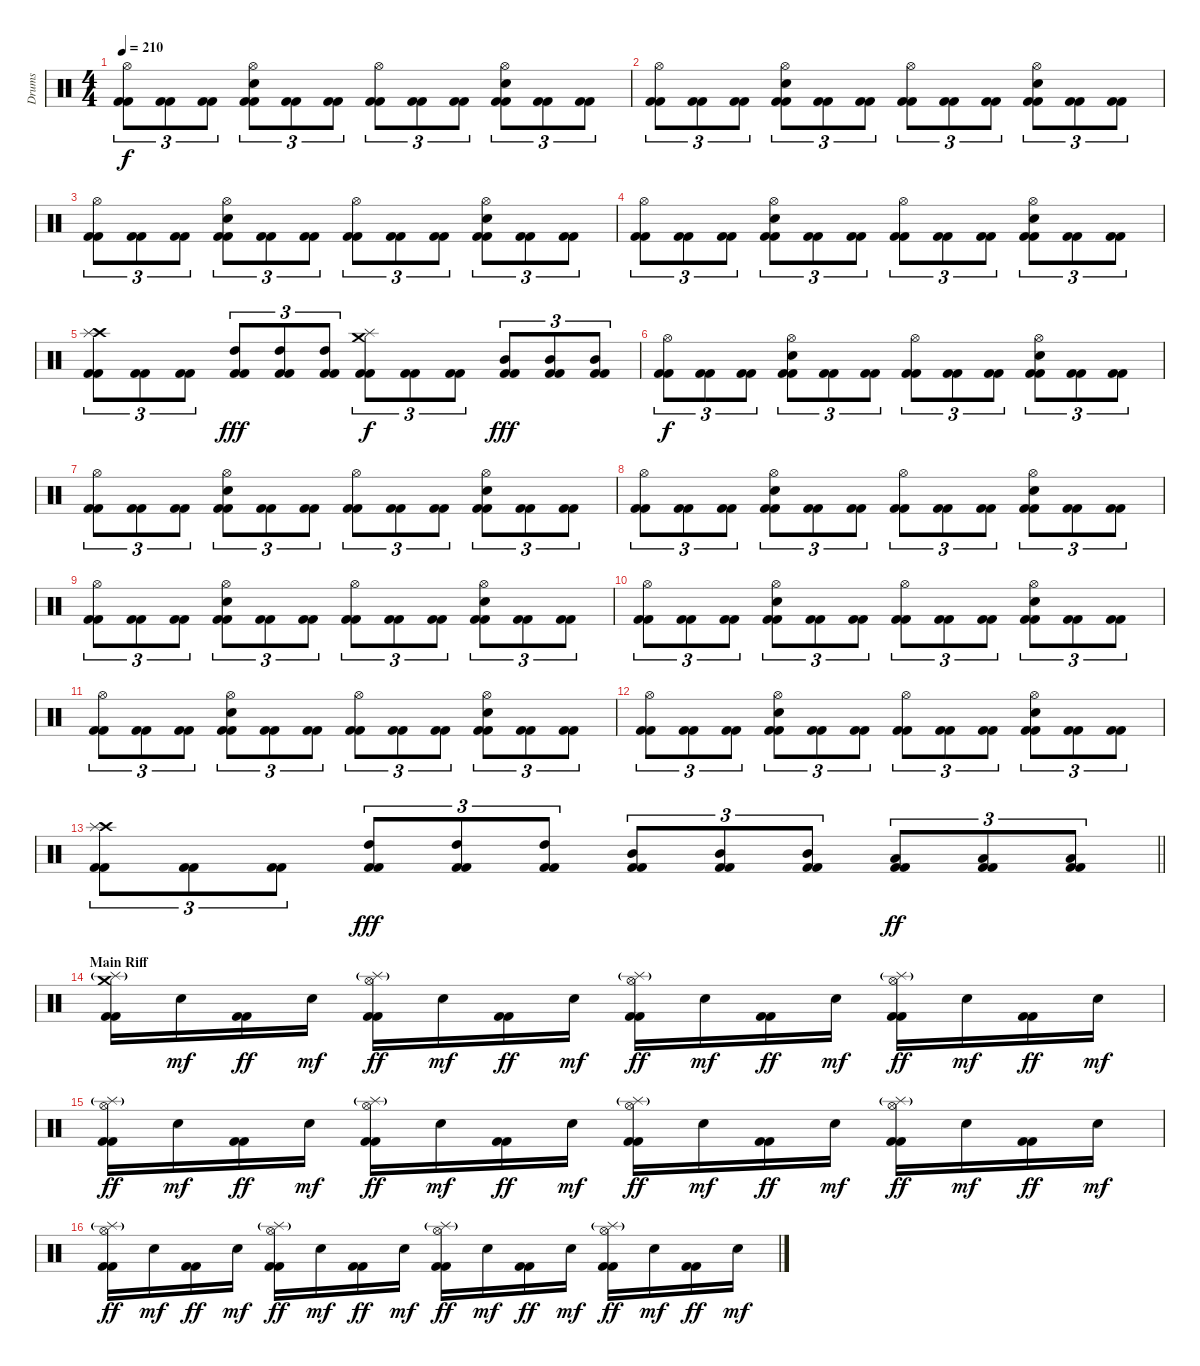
\track ("Drums" "Drums") {instrument percussion}
\staff {score}
\articulation defaults
\ts (4 4)
\tempo 210
\clef neutral
\ks c
("Hi-Hat (open)" "Kick (hit) 2" "Kick (hit) 2").8{tu (3 2) dy f} ("Kick (hit) 2" "Kick (hit) 2").8{tu (3 2)} ("Kick (hit) 2" "Kick (hit) 2").8{tu (3 2)} ("Hi-Hat (open)" "Snare (hit) 2" "Kick (hit) 2" "Kick (hit) 2").8{tu (3 2)} ("Kick (hit) 2" "Kick (hit) 2").8{tu (3 2)} ("Kick (hit) 2" "Kick (hit) 2").8{tu (3 2)} ("Hi-Hat (open)" "Kick (hit) 2" "Kick (hit) 2").8{tu (3 2)} ("Kick (hit) 2" "Kick (hit) 2").8{tu (3 2)} ("Kick (hit) 2" "Kick (hit) 2").8{tu (3 2)} ("Hi-Hat (open)" "Snare (hit) 2" "Kick (hit) 2" "Kick (hit) 2").8{tu (3 2)} ("Kick (hit) 2" "Kick (hit) 2").8{tu (3 2)} ("Kick (hit) 2" "Kick (hit) 2").8{tu (3 2)} |
("Hi-Hat (open)" "Kick (hit) 2" "Kick (hit) 2").8{tu (3 2)} ("Kick (hit) 2" "Kick (hit) 2").8{tu (3 2)} ("Kick (hit) 2" "Kick (hit) 2").8{tu (3 2)} ("Hi-Hat (open)" "Snare (hit) 2" "Kick (hit) 2" "Kick (hit) 2").8{tu (3 2)} ("Kick (hit) 2" "Kick (hit) 2").8{tu (3 2)} ("Kick (hit) 2" "Kick (hit) 2").8{tu (3 2)} ("Hi-Hat (open)" "Kick (hit) 2" "Kick (hit) 2").8{tu (3 2)} ("Kick (hit) 2" "Kick (hit) 2").8{tu (3 2)} ("Kick (hit) 2" "Kick (hit) 2").8{tu (3 2)} ("Hi-Hat (open)" "Snare (hit) 2" "Kick (hit) 2" "Kick (hit) 2").8{tu (3 2)} ("Kick (hit) 2" "Kick (hit) 2").8{tu (3 2)} ("Kick (hit) 2" "Kick (hit) 2").8{tu (3 2)} |
("Hi-Hat (open)" "Kick (hit) 2" "Kick (hit) 2").8{tu (3 2)} ("Kick (hit) 2" "Kick (hit) 2").8{tu (3 2)} ("Kick (hit) 2" "Kick (hit) 2").8{tu (3 2)} ("Hi-Hat (open)" "Snare (hit) 2" "Kick (hit) 2" "Kick (hit) 2").8{tu (3 2)} ("Kick (hit) 2" "Kick (hit) 2").8{tu (3 2)} ("Kick (hit) 2" "Kick (hit) 2").8{tu (3 2)} ("Hi-Hat (open)" "Kick (hit) 2" "Kick (hit) 2").8{tu (3 2)} ("Kick (hit) 2" "Kick (hit) 2").8{tu (3 2)} ("Kick (hit) 2" "Kick (hit) 2").8{tu (3 2)} ("Hi-Hat (open)" "Snare (hit) 2" "Kick (hit) 2" "Kick (hit) 2").8{tu (3 2)} ("Kick (hit) 2" "Kick (hit) 2").8{tu (3 2)} ("Kick (hit) 2" "Kick (hit) 2").8{tu (3 2)} |
("Hi-Hat (open)" "Kick (hit) 2" "Kick (hit) 2").8{tu (3 2)} ("Kick (hit) 2" "Kick (hit) 2").8{tu (3 2)} ("Kick (hit) 2" "Kick (hit) 2").8{tu (3 2)} ("Hi-Hat (open)" "Snare (hit) 2" "Kick (hit) 2" "Kick (hit) 2").8{tu (3 2)} ("Kick (hit) 2" "Kick (hit) 2").8{tu (3 2)} ("Kick (hit) 2" "Kick (hit) 2").8{tu (3 2)} ("Hi-Hat (open)" "Kick (hit) 2" "Kick (hit) 2").8{tu (3 2)} ("Kick (hit) 2" "Kick (hit) 2").8{tu (3 2)} ("Kick (hit) 2" "Kick (hit) 2").8{tu (3 2)} ("Hi-Hat (open)" "Snare (hit) 2" "Kick (hit) 2" "Kick (hit) 2").8{tu (3 2)} ("Kick (hit) 2" "Kick (hit) 2").8{tu (3 2)} ("Kick (hit) 2" "Kick (hit) 2").8{tu (3 2)} |
("Crash high (hit)" "Splash (hit)" "Kick (hit) 2" "Kick (hit) 2").8{tu (3 2)} ("Kick (hit) 2" "Kick (hit) 2").8{tu (3 2)} ("Kick (hit) 2" "Kick (hit) 2").8{tu (3 2)} ("High Tom (hit)" "Kick (hit) 2" "Kick (hit) 2").8{tu (3 2) dy fff} ("High Tom (hit)" "Kick (hit) 2" "Kick (hit) 2").8{tu (3 2)} ("High Tom (hit)" "Kick (hit) 2" "Kick (hit) 2").8{tu (3 2)} ("Crash medium (hit)" "Splash (hit)" "Kick (hit) 2" "Kick (hit) 2").8{tu (3 2) dy f} ("Kick (hit) 2" "Kick (hit) 2").8{tu (3 2)} ("Kick (hit) 2" "Kick (hit) 2").8{tu (3 2)} ("Mid Tom (hit)" "Kick (hit) 2" "Kick (hit) 2").8{tu (3 2) dy fff} ("Mid Tom (hit)" "Kick (hit) 2" "Kick (hit) 2").8{tu (3 2)} ("Mid Tom (hit)" "Kick (hit) 2" "Kick (hit) 2").8{tu (3 2)} |
("Hi-Hat (open)" "Kick (hit) 2" "Kick (hit) 2").8{tu (3 2) dy f} ("Kick (hit) 2" "Kick (hit) 2").8{tu (3 2)} ("Kick (hit) 2" "Kick (hit) 2").8{tu (3 2)} ("Hi-Hat (open)" "Snare (hit) 2" "Kick (hit) 2" "Kick (hit) 2").8{tu (3 2)} ("Kick (hit) 2" "Kick (hit) 2").8{tu (3 2)} ("Kick (hit) 2" "Kick (hit) 2").8{tu (3 2)} ("Hi-Hat (open)" "Kick (hit) 2" "Kick (hit) 2").8{tu (3 2)} ("Kick (hit) 2" "Kick (hit) 2").8{tu (3 2)} ("Kick (hit) 2" "Kick (hit) 2").8{tu (3 2)} ("Hi-Hat (open)" "Snare (hit) 2" "Kick (hit) 2" "Kick (hit) 2").8{tu (3 2)} ("Kick (hit) 2" "Kick (hit) 2").8{tu (3 2)} ("Kick (hit) 2" "Kick (hit) 2").8{tu (3 2)} |
("Hi-Hat (open)" "Kick (hit) 2" "Kick (hit) 2").8{tu (3 2)} ("Kick (hit) 2" "Kick (hit) 2").8{tu (3 2)} ("Kick (hit) 2" "Kick (hit) 2").8{tu (3 2)} ("Hi-Hat (open)" "Snare (hit) 2" "Kick (hit) 2" "Kick (hit) 2").8{tu (3 2)} ("Kick (hit) 2" "Kick (hit) 2").8{tu (3 2)} ("Kick (hit) 2" "Kick (hit) 2").8{tu (3 2)} ("Hi-Hat (open)" "Kick (hit) 2" "Kick (hit) 2").8{tu (3 2)} ("Kick (hit) 2" "Kick (hit) 2").8{tu (3 2)} ("Kick (hit) 2" "Kick (hit) 2").8{tu (3 2)} ("Hi-Hat (open)" "Snare (hit) 2" "Kick (hit) 2" "Kick (hit) 2").8{tu (3 2)} ("Kick (hit) 2" "Kick (hit) 2").8{tu (3 2)} ("Kick (hit) 2" "Kick (hit) 2").8{tu (3 2)} |
("Hi-Hat (open)" "Kick (hit) 2" "Kick (hit) 2").8{tu (3 2)} ("Kick (hit) 2" "Kick (hit) 2").8{tu (3 2)} ("Kick (hit) 2" "Kick (hit) 2").8{tu (3 2)} ("Hi-Hat (open)" "Snare (hit) 2" "Kick (hit) 2" "Kick (hit) 2").8{tu (3 2)} ("Kick (hit) 2" "Kick (hit) 2").8{tu (3 2)} ("Kick (hit) 2" "Kick (hit) 2").8{tu (3 2)} ("Hi-Hat (open)" "Kick (hit) 2" "Kick (hit) 2").8{tu (3 2)} ("Kick (hit) 2" "Kick (hit) 2").8{tu (3 2)} ("Kick (hit) 2" "Kick (hit) 2").8{tu (3 2)} ("Hi-Hat (open)" "Snare (hit) 2" "Kick (hit) 2" "Kick (hit) 2").8{tu (3 2)} ("Kick (hit) 2" "Kick (hit) 2").8{tu (3 2)} ("Kick (hit) 2" "Kick (hit) 2").8{tu (3 2)} |
("Hi-Hat (open)" "Kick (hit) 2" "Kick (hit) 2").8{tu (3 2)} ("Kick (hit) 2" "Kick (hit) 2").8{tu (3 2)} ("Kick (hit) 2" "Kick (hit) 2").8{tu (3 2)} ("Hi-Hat (open)" "Snare (hit) 2" "Kick (hit) 2" "Kick (hit) 2").8{tu (3 2)} ("Kick (hit) 2" "Kick (hit) 2").8{tu (3 2)} ("Kick (hit) 2" "Kick (hit) 2").8{tu (3 2)} ("Hi-Hat (open)" "Kick (hit) 2" "Kick (hit) 2").8{tu (3 2)} ("Kick (hit) 2" "Kick (hit) 2").8{tu (3 2)} ("Kick (hit) 2" "Kick (hit) 2").8{tu (3 2)} ("Hi-Hat (open)" "Snare (hit) 2" "Kick (hit) 2" "Kick (hit) 2").8{tu (3 2)} ("Kick (hit) 2" "Kick (hit) 2").8{tu (3 2)} ("Kick (hit) 2" "Kick (hit) 2").8{tu (3 2)} |
("Hi-Hat (open)" "Kick (hit) 2" "Kick (hit) 2").8{tu (3 2)} ("Kick (hit) 2" "Kick (hit) 2").8{tu (3 2)} ("Kick (hit) 2" "Kick (hit) 2").8{tu (3 2)} ("Hi-Hat (open)" "Snare (hit) 2" "Kick (hit) 2" "Kick (hit) 2").8{tu (3 2)} ("Kick (hit) 2" "Kick (hit) 2").8{tu (3 2)} ("Kick (hit) 2" "Kick (hit) 2").8{tu (3 2)} ("Hi-Hat (open)" "Kick (hit) 2" "Kick (hit) 2").8{tu (3 2)} ("Kick (hit) 2" "Kick (hit) 2").8{tu (3 2)} ("Kick (hit) 2" "Kick (hit) 2").8{tu (3 2)} ("Hi-Hat (open)" "Snare (hit) 2" "Kick (hit) 2" "Kick (hit) 2").8{tu (3 2)} ("Kick (hit) 2" "Kick (hit) 2").8{tu (3 2)} ("Kick (hit) 2" "Kick (hit) 2").8{tu (3 2)} |
("Hi-Hat (open)" "Kick (hit) 2" "Kick (hit) 2").8{tu (3 2)} ("Kick (hit) 2" "Kick (hit) 2").8{tu (3 2)} ("Kick (hit) 2" "Kick (hit) 2").8{tu (3 2)} ("Hi-Hat (open)" "Snare (hit) 2" "Kick (hit) 2" "Kick (hit) 2").8{tu (3 2)} ("Kick (hit) 2" "Kick (hit) 2").8{tu (3 2)} ("Kick (hit) 2" "Kick (hit) 2").8{tu (3 2)} ("Hi-Hat (open)" "Kick (hit) 2" "Kick (hit) 2").8{tu (3 2)} ("Kick (hit) 2" "Kick (hit) 2").8{tu (3 2)} ("Kick (hit) 2" "Kick (hit) 2").8{tu (3 2)} ("Hi-Hat (open)" "Snare (hit) 2" "Kick (hit) 2" "Kick (hit) 2").8{tu (3 2)} ("Kick (hit) 2" "Kick (hit) 2").8{tu (3 2)} ("Kick (hit) 2" "Kick (hit) 2").8{tu (3 2)} |
("Hi-Hat (open)" "Kick (hit) 2" "Kick (hit) 2").8{tu (3 2)} ("Kick (hit) 2" "Kick (hit) 2").8{tu (3 2)} ("Kick (hit) 2" "Kick (hit) 2").8{tu (3 2)} ("Hi-Hat (open)" "Snare (hit) 2" "Kick (hit) 2" "Kick (hit) 2").8{tu (3 2)} ("Kick (hit) 2" "Kick (hit) 2").8{tu (3 2)} ("Kick (hit) 2" "Kick (hit) 2").8{tu (3 2)} ("Hi-Hat (open)" "Kick (hit) 2" "Kick (hit) 2").8{tu (3 2)} ("Kick (hit) 2" "Kick (hit) 2").8{tu (3 2)} ("Kick (hit) 2" "Kick (hit) 2").8{tu (3 2)} ("Hi-Hat (open)" "Snare (hit) 2" "Kick (hit) 2" "Kick (hit) 2").8{tu (3 2)} ("Kick (hit) 2" "Kick (hit) 2").8{tu (3 2)} ("Kick (hit) 2" "Kick (hit) 2").8{tu (3 2)} |
\barLineRight lightlight
("Crash high (hit)" "Splash (hit)" "Kick (hit) 2" "Kick (hit) 2").8{tu (3 2)} ("Kick (hit) 2" "Kick (hit) 2").8{tu (3 2)} ("Kick (hit) 2" "Kick (hit) 2").8{tu (3 2)} ("High Tom (hit)" "Kick (hit) 2" "Kick (hit) 2").8{tu (3 2) dy fff} ("High Tom (hit)" "Kick (hit) 2" "Kick (hit) 2").8{tu (3 2)} ("High Tom (hit)" "Kick (hit) 2" "Kick (hit) 2").8{tu (3 2)} ("Mid Tom (hit)" "Kick (hit) 2" "Kick (hit) 2").8{tu (3 2)} ("Mid Tom (hit)" "Kick (hit) 2" "Kick (hit) 2").8{tu (3 2)} ("Mid Tom (hit)" "Kick (hit) 2" "Kick (hit) 2").8{tu (3 2)} ("Low Tom (hit)" "Kick (hit) 2" "Kick (hit) 2").8{tu (3 2) dy ff} ("Low Tom (hit)" "Kick (hit) 2" "Kick (hit) 2").8{tu (3 2)} ("Low Tom (hit)" "Kick (hit) 2" "Kick (hit) 2").8{tu (3 2)} |
\section ("" "Main Riff")
("Crash medium (hit)" "Splash (hit)"{g} "Kick (hit) 2" "Kick (hit) 2").16 "Snare (hit) 2".16{dy mf} ("Kick (hit) 2" "Kick (hit) 2").16{dy ff} "Snare (hit) 2".16{dy mf} ("Hi-Hat (open)" "Splash (hit)"{g} "Kick (hit) 2" "Kick (hit) 2").16{dy ff} "Snare (hit) 2".16{dy mf} ("Kick (hit) 2" "Kick (hit) 2").16{dy ff} "Snare (hit) 2".16{dy mf} ("Hi-Hat (open)" "Splash (hit)"{g} "Kick (hit) 2" "Kick (hit) 2").16{dy ff} "Snare (hit) 2".16{dy mf} ("Kick (hit) 2" "Kick (hit) 2").16{dy ff} "Snare (hit) 2".16{dy mf} ("Hi-Hat (open)" "Splash (hit)"{g} "Kick (hit) 2" "Kick (hit) 2").16{dy ff} "Snare (hit) 2".16{dy mf} ("Kick (hit) 2" "Kick (hit) 2").16{dy ff} "Snare (hit) 2".16{dy mf} |
("Hi-Hat (open)" "Splash (hit)"{g} "Kick (hit) 2" "Kick (hit) 2").16{dy ff} "Snare (hit) 2".16{dy mf} ("Kick (hit) 2" "Kick (hit) 2").16{dy ff} "Snare (hit) 2".16{dy mf} ("Hi-Hat (open)" "Splash (hit)"{g} "Kick (hit) 2" "Kick (hit) 2").16{dy ff} "Snare (hit) 2".16{dy mf} ("Kick (hit) 2" "Kick (hit) 2").16{dy ff} "Snare (hit) 2".16{dy mf} ("Hi-Hat (open)" "Splash (hit)"{g} "Kick (hit) 2" "Kick (hit) 2").16{dy ff} "Snare (hit) 2".16{dy mf} ("Kick (hit) 2" "Kick (hit) 2").16{dy ff} "Snare (hit) 2".16{dy mf} ("Hi-Hat (open)" "Splash (hit)"{g} "Kick (hit) 2" "Kick (hit) 2").16{dy ff} "Snare (hit) 2".16{dy mf} ("Kick (hit) 2" "Kick (hit) 2").16{dy ff} "Snare (hit) 2".16{dy mf} |
("Hi-Hat (open)" "Splash (hit)"{g} "Kick (hit) 2" "Kick (hit) 2").16{dy ff} "Snare (hit) 2".16{dy mf} ("Kick (hit) 2" "Kick (hit) 2").16{dy ff} "Snare (hit) 2".16{dy mf} ("Hi-Hat (open)" "Splash (hit)"{g} "Kick (hit) 2" "Kick (hit) 2").16{dy ff} "Snare (hit) 2".16{dy mf} ("Kick (hit) 2" "Kick (hit) 2").16{dy ff} "Snare (hit) 2".16{dy mf} ("Hi-Hat (open)" "Splash (hit)"{g} "Kick (hit) 2" "Kick (hit) 2").16{dy ff} "Snare (hit) 2".16{dy mf} ("Kick (hit) 2" "Kick (hit) 2").16{dy ff} "Snare (hit) 2".16{dy mf} ("Hi-Hat (open)" "Splash (hit)"{g} "Kick (hit) 2" "Kick (hit) 2").16{dy ff} "Snare (hit) 2".16{dy mf} ("Kick (hit) 2" "Kick (hit) 2").16{dy ff} "Snare (hit) 2".16{dy mf}
